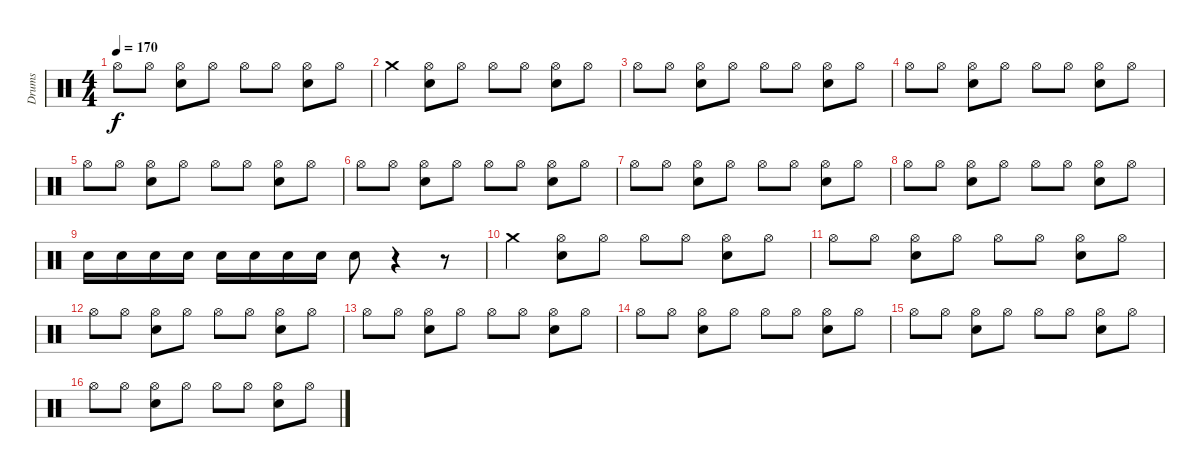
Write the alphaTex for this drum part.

\track ("Drums" "Drums") {instrument percussion}
\staff {score}
\articulation defaults
\ts (4 4)
\tempo 170
\clef neutral
\ks c "Hi-Hat (open)".8{dy f} "Hi-Hat (open)".8
("Electric Snare (hit)" "Hi-Hat (open)").8 "Hi-Hat (open)".8 "Hi-Hat (open)".8 "Hi-Hat (open)".8 ("Electric Snare (hit)" "Hi-Hat (open)").8 "Hi-Hat (open)".8 |
"Crash medium (hit)".4 ("Electric Snare (hit)" "Hi-Hat (open)").8 "Hi-Hat (open)".8 "Hi-Hat (open)".8 "Hi-Hat (open)".8 ("Electric Snare (hit)" "Hi-Hat (open)").8 "Hi-Hat (open)".8 |
"Hi-Hat (open)".8 "Hi-Hat (open)".8 ("Electric Snare (hit)" "Hi-Hat (open)").8 "Hi-Hat (open)".8 "Hi-Hat (open)".8 "Hi-Hat (open)".8 ("Electric Snare (hit)" "Hi-Hat (open)").8 "Hi-Hat (open)".8 |
"Hi-Hat (open)".8 "Hi-Hat (open)".8 ("Electric Snare (hit)" "Hi-Hat (open)").8 "Hi-Hat (open)".8 "Hi-Hat (open)".8 "Hi-Hat (open)".8 ("Electric Snare (hit)" "Hi-Hat (open)").8 "Hi-Hat (open)".8 |
"Hi-Hat (open)".8 "Hi-Hat (open)".8 ("Electric Snare (hit)" "Hi-Hat (open)").8 "Hi-Hat (open)".8 "Hi-Hat (open)".8 "Hi-Hat (open)".8 ("Electric Snare (hit)" "Hi-Hat (open)").8 "Hi-Hat (open)".8 |
"Hi-Hat (open)".8 "Hi-Hat (open)".8 ("Electric Snare (hit)" "Hi-Hat (open)").8 "Hi-Hat (open)".8 "Hi-Hat (open)".8 "Hi-Hat (open)".8 ("Electric Snare (hit)" "Hi-Hat (open)").8 "Hi-Hat (open)".8 |
"Hi-Hat (open)".8 "Hi-Hat (open)".8 ("Electric Snare (hit)" "Hi-Hat (open)").8 "Hi-Hat (open)".8 "Hi-Hat (open)".8 "Hi-Hat (open)".8 ("Electric Snare (hit)" "Hi-Hat (open)").8 "Hi-Hat (open)".8 |
"Hi-Hat (open)".8 "Hi-Hat (open)".8 ("Electric Snare (hit)" "Hi-Hat (open)").8 "Hi-Hat (open)".8 "Hi-Hat (open)".8 "Hi-Hat (open)".8 ("Electric Snare (hit)" "Hi-Hat (open)").8 "Hi-Hat (open)".8 |
"Electric Snare (hit)".16 "Electric Snare (hit)".16 "Electric Snare (hit)".16 "Electric Snare (hit)".16 "Electric Snare (hit)".16 "Electric Snare (hit)".16 "Electric Snare (hit)".16 "Electric Snare (hit)".16 "Electric Snare (hit)".8 r.4 r.8 |
"Crash medium (hit)".4 ("Electric Snare (hit)" "Hi-Hat (open)").8 "Hi-Hat (open)".8 "Hi-Hat (open)".8 "Hi-Hat (open)".8 ("Electric Snare (hit)" "Hi-Hat (open)").8 "Hi-Hat (open)".8 |
"Hi-Hat (open)".8 "Hi-Hat (open)".8 ("Electric Snare (hit)" "Hi-Hat (open)").8 "Hi-Hat (open)".8 "Hi-Hat (open)".8 "Hi-Hat (open)".8 ("Electric Snare (hit)" "Hi-Hat (open)").8 "Hi-Hat (open)".8 |
"Hi-Hat (open)".8 "Hi-Hat (open)".8 ("Electric Snare (hit)" "Hi-Hat (open)").8 "Hi-Hat (open)".8 "Hi-Hat (open)".8 "Hi-Hat (open)".8 ("Electric Snare (hit)" "Hi-Hat (open)").8 "Hi-Hat (open)".8 |
"Hi-Hat (open)".8 "Hi-Hat (open)".8 ("Electric Snare (hit)" "Hi-Hat (open)").8 "Hi-Hat (open)".8 "Hi-Hat (open)".8 "Hi-Hat (open)".8 ("Electric Snare (hit)" "Hi-Hat (open)").8 "Hi-Hat (open)".8 |
"Hi-Hat (open)".8 "Hi-Hat (open)".8 ("Electric Snare (hit)" "Hi-Hat (open)").8 "Hi-Hat (open)".8 "Hi-Hat (open)".8 "Hi-Hat (open)".8 ("Electric Snare (hit)" "Hi-Hat (open)").8 "Hi-Hat (open)".8 |
"Hi-Hat (open)".8 "Hi-Hat (open)".8 ("Electric Snare (hit)" "Hi-Hat (open)").8 "Hi-Hat (open)".8 "Hi-Hat (open)".8 "Hi-Hat (open)".8 ("Electric Snare (hit)" "Hi-Hat (open)").8 "Hi-Hat (open)".8 |
"Hi-Hat (open)".8 "Hi-Hat (open)".8 ("Electric Snare (hit)" "Hi-Hat (open)").8 "Hi-Hat (open)".8 "Hi-Hat (open)".8 "Hi-Hat (open)".8 ("Electric Snare (hit)" "Hi-Hat (open)").8 "Hi-Hat (open)".8
